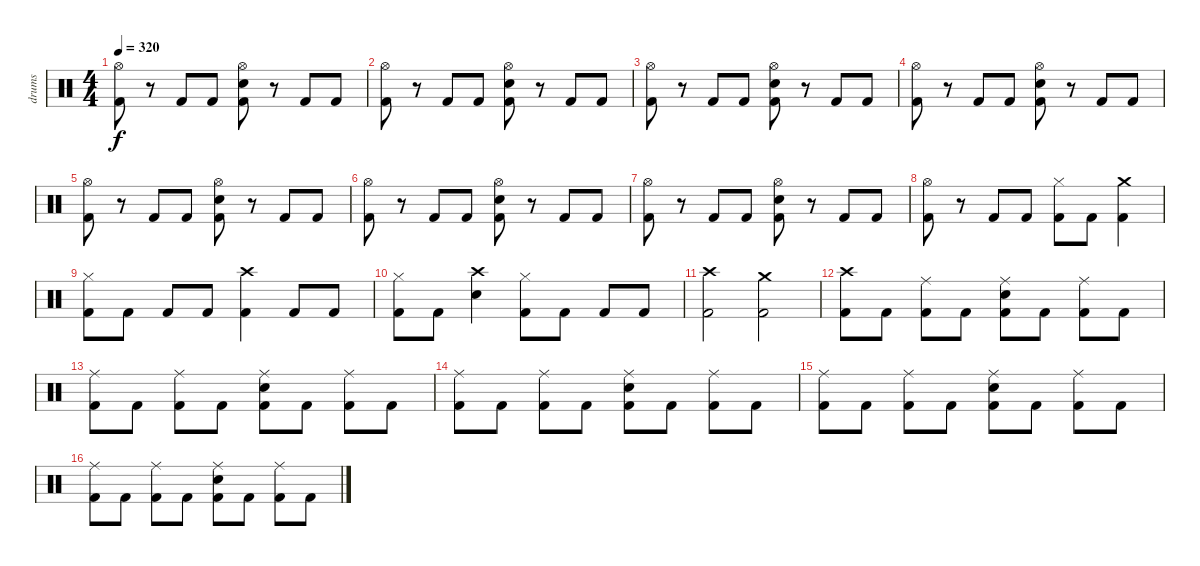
\track ("drums" "drums") {instrument percussion}
\staff {score}
\articulation defaults
\ts (4 4)
\tempo 320
\clef neutral
\ks c
("Hi-Hat (open)" "Kick (hit) 2").8{dy f} r.8 "Kick (hit) 2".8 "Kick (hit) 2".8 ("Hi-Hat (open)" "Kick (hit) 2" "Snare (hit) 2").8 r.8 "Kick (hit) 2".8 "Kick (hit) 2".8 |
("Hi-Hat (open)" "Kick (hit) 2").8 r.8 "Kick (hit) 2".8 "Kick (hit) 2".8 ("Hi-Hat (open)" "Kick (hit) 2" "Snare (hit) 2").8 r.8 "Kick (hit) 2".8 "Kick (hit) 2".8 |
("Hi-Hat (open)" "Kick (hit) 2").8 r.8 "Kick (hit) 2".8 "Kick (hit) 2".8 ("Hi-Hat (open)" "Kick (hit) 2" "Snare (hit) 2").8 r.8 "Kick (hit) 2".8 "Kick (hit) 2".8 |
("Hi-Hat (open)" "Kick (hit) 2").8 r.8 "Kick (hit) 2".8 "Kick (hit) 2".8 ("Hi-Hat (open)" "Kick (hit) 2" "Snare (hit) 2").8 r.8 "Kick (hit) 2".8 "Kick (hit) 2".8 |
("Hi-Hat (open)" "Kick (hit) 2").8 r.8 "Kick (hit) 2".8 "Kick (hit) 2".8 ("Hi-Hat (open)" "Kick (hit) 2" "Snare (hit) 2").8 r.8 "Kick (hit) 2".8 "Kick (hit) 2".8 |
("Hi-Hat (open)" "Kick (hit) 2").8 r.8 "Kick (hit) 2".8 "Kick (hit) 2".8 ("Hi-Hat (open)" "Kick (hit) 2" "Snare (hit) 2").8 r.8 "Kick (hit) 2".8 "Kick (hit) 2".8 |
("Hi-Hat (open)" "Kick (hit) 2").8 r.8 "Kick (hit) 2".8 "Kick (hit) 2".8 ("Hi-Hat (open)" "Kick (hit) 2" "Snare (hit) 2").8 r.8 "Kick (hit) 2".8 "Kick (hit) 2".8 |
("Hi-Hat (open)" "Kick (hit) 2").8 r.8 "Kick (hit) 2".8 "Kick (hit) 2".8 ("Kick (hit) 2" "Hi-Hat (closed)").8 "Kick (hit) 2".8 ("Crash medium (hit)" "Kick (hit) 2").4 |
("Kick (hit) 2" "Hi-Hat (closed)").8 "Kick (hit) 2".8 "Kick (hit) 2".8 "Kick (hit) 2".8 ("Crash high (hit)" "Kick (hit) 2").4 "Kick (hit) 2".8 "Kick (hit) 2".8 |
("Kick (hit) 2" "Hi-Hat (closed)").8 "Kick (hit) 2".8 ("Snare (hit) 2" "Crash high (hit)").4 ("Kick (hit) 2" "Hi-Hat (closed)").8 "Kick (hit) 2".8 "Kick (hit) 2".8 "Kick (hit) 2".8 |
("Crash high (hit)" "Kick (hit) 2").2 ("Crash medium (hit)" "Kick (hit) 2").2 |
("Kick (hit) 2" "Crash high (hit)").8 "Kick (hit) 2".8 ("Kick (hit) 2" "Ride (middle)").8 "Kick (hit) 2".8 ("Kick (hit) 2" "Ride (middle)" "Snare (hit) 2").8 "Kick (hit) 2".8 ("Kick (hit) 2" "Ride (middle)").8 "Kick (hit) 2".8 |
("Kick (hit) 2" "Ride (middle)").8 "Kick (hit) 2".8 ("Kick (hit) 2" "Ride (middle)").8 "Kick (hit) 2".8 ("Kick (hit) 2" "Ride (middle)" "Snare (hit) 2").8 "Kick (hit) 2".8 ("Kick (hit) 2" "Ride (middle)").8 "Kick (hit) 2".8 |
("Kick (hit) 2" "Ride (middle)").8 "Kick (hit) 2".8 ("Kick (hit) 2" "Ride (middle)").8 "Kick (hit) 2".8 ("Kick (hit) 2" "Ride (middle)" "Snare (hit) 2").8 "Kick (hit) 2".8 ("Kick (hit) 2" "Ride (middle)").8 "Kick (hit) 2".8 |
("Kick (hit) 2" "Ride (middle)").8 "Kick (hit) 2".8 ("Kick (hit) 2" "Ride (middle)").8 "Kick (hit) 2".8 ("Kick (hit) 2" "Ride (middle)" "Snare (hit) 2").8 "Kick (hit) 2".8 ("Kick (hit) 2" "Ride (middle)").8 "Kick (hit) 2".8 |
("Kick (hit) 2" "Ride (middle)").8 "Kick (hit) 2".8 ("Kick (hit) 2" "Ride (middle)").8 "Kick (hit) 2".8 ("Kick (hit) 2" "Ride (middle)" "Snare (hit) 2").8 "Kick (hit) 2".8 ("Kick (hit) 2" "Ride (middle)").8 "Kick (hit) 2".8
